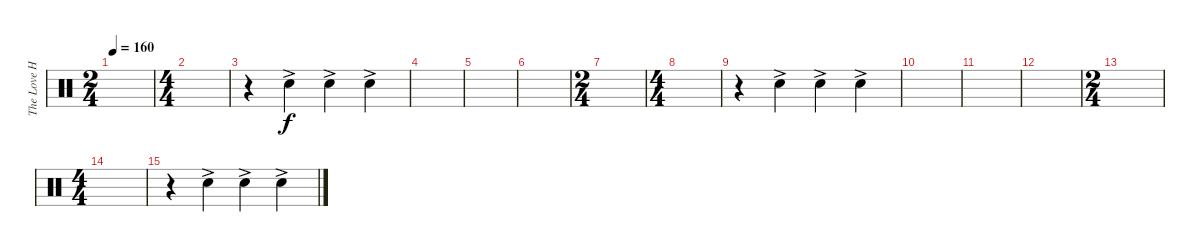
\track ("The Love Haters (Hand Clap)(Drums)" "The Love H") {instrument percussion}
\staff {score}
\articulation defaults
\ts (2 4)
\tempo 160
\clef neutral
\ks c
|
\ts (4 4)
|
r.4 "Hand Clap (hit)"{ac}.4 "Hand Clap (hit)"{ac}.4 "Hand Clap (hit)"{ac}.4 |
|
|
|
\ts (2 4)
|
\ts (4 4)
|
r.4 "Hand Clap (hit)"{ac}.4 "Hand Clap (hit)"{ac}.4 "Hand Clap (hit)"{ac}.4 |
|
|
|
\ts (2 4)
|
\ts (4 4)
|
r.4 "Hand Clap (hit)"{ac}.4 "Hand Clap (hit)"{ac}.4 "Hand Clap (hit)"{ac}.4
